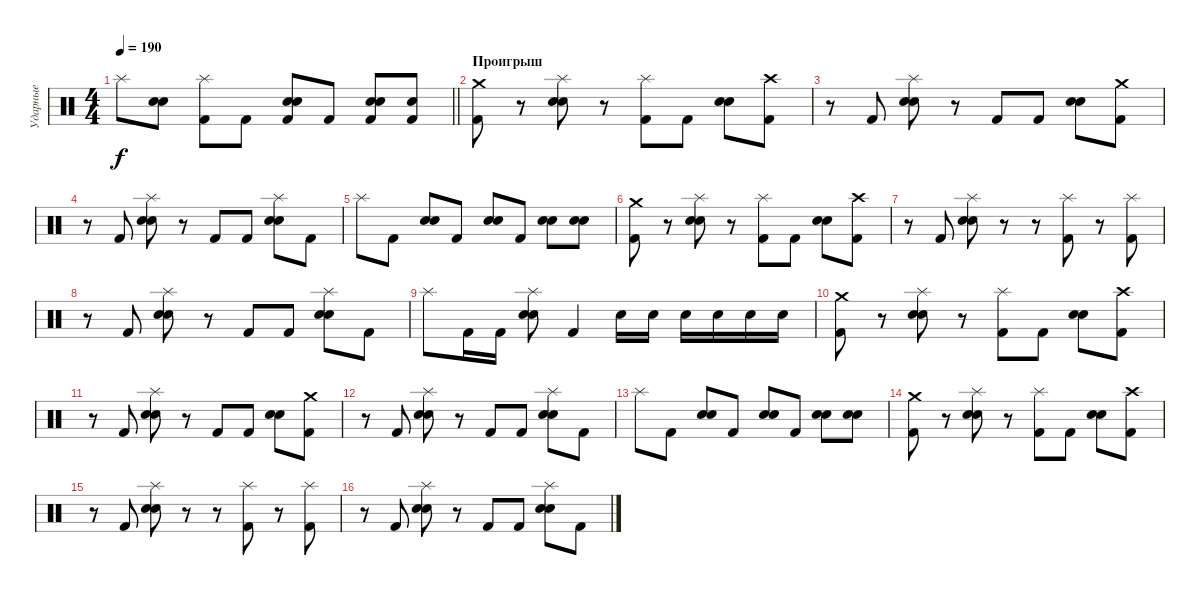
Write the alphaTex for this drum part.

\track ("Ударные" "Ударные") {instrument percussion}
\staff {score}
\articulation defaults
\ts (4 4)
\tempo 190
\clef neutral
\barLineRight lightlight
\ks c "Splash (hit)".8{dy f}
("Electric Snare (hit)" "Snare (hit) 2").8 ("Splash (hit)" "Kick (hit) 2").8 "Kick (hit) 2".8 ("Electric Snare (hit)" "Snare (hit) 2" "Kick (hit) 2").8 "Kick (hit) 2".8 ("Electric Snare (hit)" "Snare (hit) 2" "Kick (hit) 2").8 ("Electric Snare (hit)" "Kick (hit) 2").8 |
\section ("" "Проигрыш")
("Crash medium (hit)" "Kick (hit) 2").8 r.8 ("Splash (hit)" "Electric Snare (hit)" "Snare (hit) 2").8 r.8 ("Splash (hit)" "Kick (hit) 2").8 "Kick (hit) 2".8 ("Electric Snare (hit)" "Snare (hit) 2").8 ("Crash high (hit)" "Kick (hit) 2").8 |
r.8 "Kick (hit) 2".8 ("Splash (hit)" "Electric Snare (hit)" "Snare (hit) 2").8 r.8 "Kick (hit) 2".8 "Kick (hit) 2".8 ("Electric Snare (hit)" "Snare (hit) 2").8 ("Crash medium (hit)" "Kick (hit) 2").8 |
r.8 "Kick (hit) 2".8 ("Splash (hit)" "Electric Snare (hit)" "Snare (hit) 2").8 r.8 "Kick (hit) 2".8 "Kick (hit) 2".8 ("Splash (hit)" "Electric Snare (hit)" "Snare (hit) 2").8 "Kick (hit) 2".8 |
"Splash (hit)".8 "Kick (hit) 2".8 ("Electric Snare (hit)" "Snare (hit) 2").8 "Kick (hit) 2".8 ("Electric Snare (hit)" "Snare (hit) 2").8 "Kick (hit) 2".8 ("Electric Snare (hit)" "Snare (hit) 2").8 ("Electric Snare (hit)" "Snare (hit) 2").8 |
("Crash medium (hit)" "Kick (hit) 2").8 r.8 ("Splash (hit)" "Electric Snare (hit)" "Snare (hit) 2").8 r.8 ("Splash (hit)" "Kick (hit) 2").8 "Kick (hit) 2".8 ("Electric Snare (hit)" "Snare (hit) 2").8 ("Crash high (hit)" "Kick (hit) 2").8 |
r.8 "Kick (hit) 2".8 ("Splash (hit)" "Electric Snare (hit)" "Snare (hit) 2").8 r.8 r.8 ("Splash (hit)" "Kick (hit) 2").8 r.8 ("Splash (hit)" "Kick (hit) 2").8 |
r.8 "Kick (hit) 2".8 ("Splash (hit)" "Electric Snare (hit)" "Snare (hit) 2").8 r.8 "Kick (hit) 2".8 "Kick (hit) 2".8 ("Splash (hit)" "Electric Snare (hit)" "Snare (hit) 2").8 "Kick (hit) 2".8 |
"Splash (hit)".8 "Kick (hit) 2".16 "Kick (hit) 2".16 ("Splash (hit)" "Electric Snare (hit)" "Snare (hit) 2").8 "Kick (hit) 2".4 "Electric Snare (hit)".16 "Electric Snare (hit)".16 "Electric Snare (hit)".16 "Electric Snare (hit)".16 "Electric Snare (hit)".16 "Electric Snare (hit)".16 |
("Crash medium (hit)" "Kick (hit) 2").8 r.8 ("Splash (hit)" "Electric Snare (hit)" "Snare (hit) 2").8 r.8 ("Splash (hit)" "Kick (hit) 2").8 "Kick (hit) 2".8 ("Electric Snare (hit)" "Snare (hit) 2").8 ("Crash high (hit)" "Kick (hit) 2").8 |
r.8 "Kick (hit) 2".8 ("Splash (hit)" "Electric Snare (hit)" "Snare (hit) 2").8 r.8 "Kick (hit) 2".8 "Kick (hit) 2".8 ("Electric Snare (hit)" "Snare (hit) 2").8 ("Crash medium (hit)" "Kick (hit) 2").8 |
r.8 "Kick (hit) 2".8 ("Splash (hit)" "Electric Snare (hit)" "Snare (hit) 2").8 r.8 "Kick (hit) 2".8 "Kick (hit) 2".8 ("Splash (hit)" "Electric Snare (hit)" "Snare (hit) 2").8 "Kick (hit) 2".8 |
"Splash (hit)".8 "Kick (hit) 2".8 ("Electric Snare (hit)" "Snare (hit) 2").8 "Kick (hit) 2".8 ("Electric Snare (hit)" "Snare (hit) 2").8 "Kick (hit) 2".8 ("Electric Snare (hit)" "Snare (hit) 2").8 ("Electric Snare (hit)" "Snare (hit) 2").8 |
("Crash medium (hit)" "Kick (hit) 2").8 r.8 ("Splash (hit)" "Electric Snare (hit)" "Snare (hit) 2").8 r.8 ("Splash (hit)" "Kick (hit) 2").8 "Kick (hit) 2".8 ("Electric Snare (hit)" "Snare (hit) 2").8 ("Crash high (hit)" "Kick (hit) 2").8 |
r.8 "Kick (hit) 2".8 ("Splash (hit)" "Electric Snare (hit)" "Snare (hit) 2").8 r.8 r.8 ("Splash (hit)" "Kick (hit) 2").8 r.8 ("Splash (hit)" "Kick (hit) 2").8 |
r.8 "Kick (hit) 2".8 ("Splash (hit)" "Electric Snare (hit)" "Snare (hit) 2").8 r.8 "Kick (hit) 2".8 "Kick (hit) 2".8 ("Splash (hit)" "Electric Snare (hit)" "Snare (hit) 2").8 "Kick (hit) 2".8
